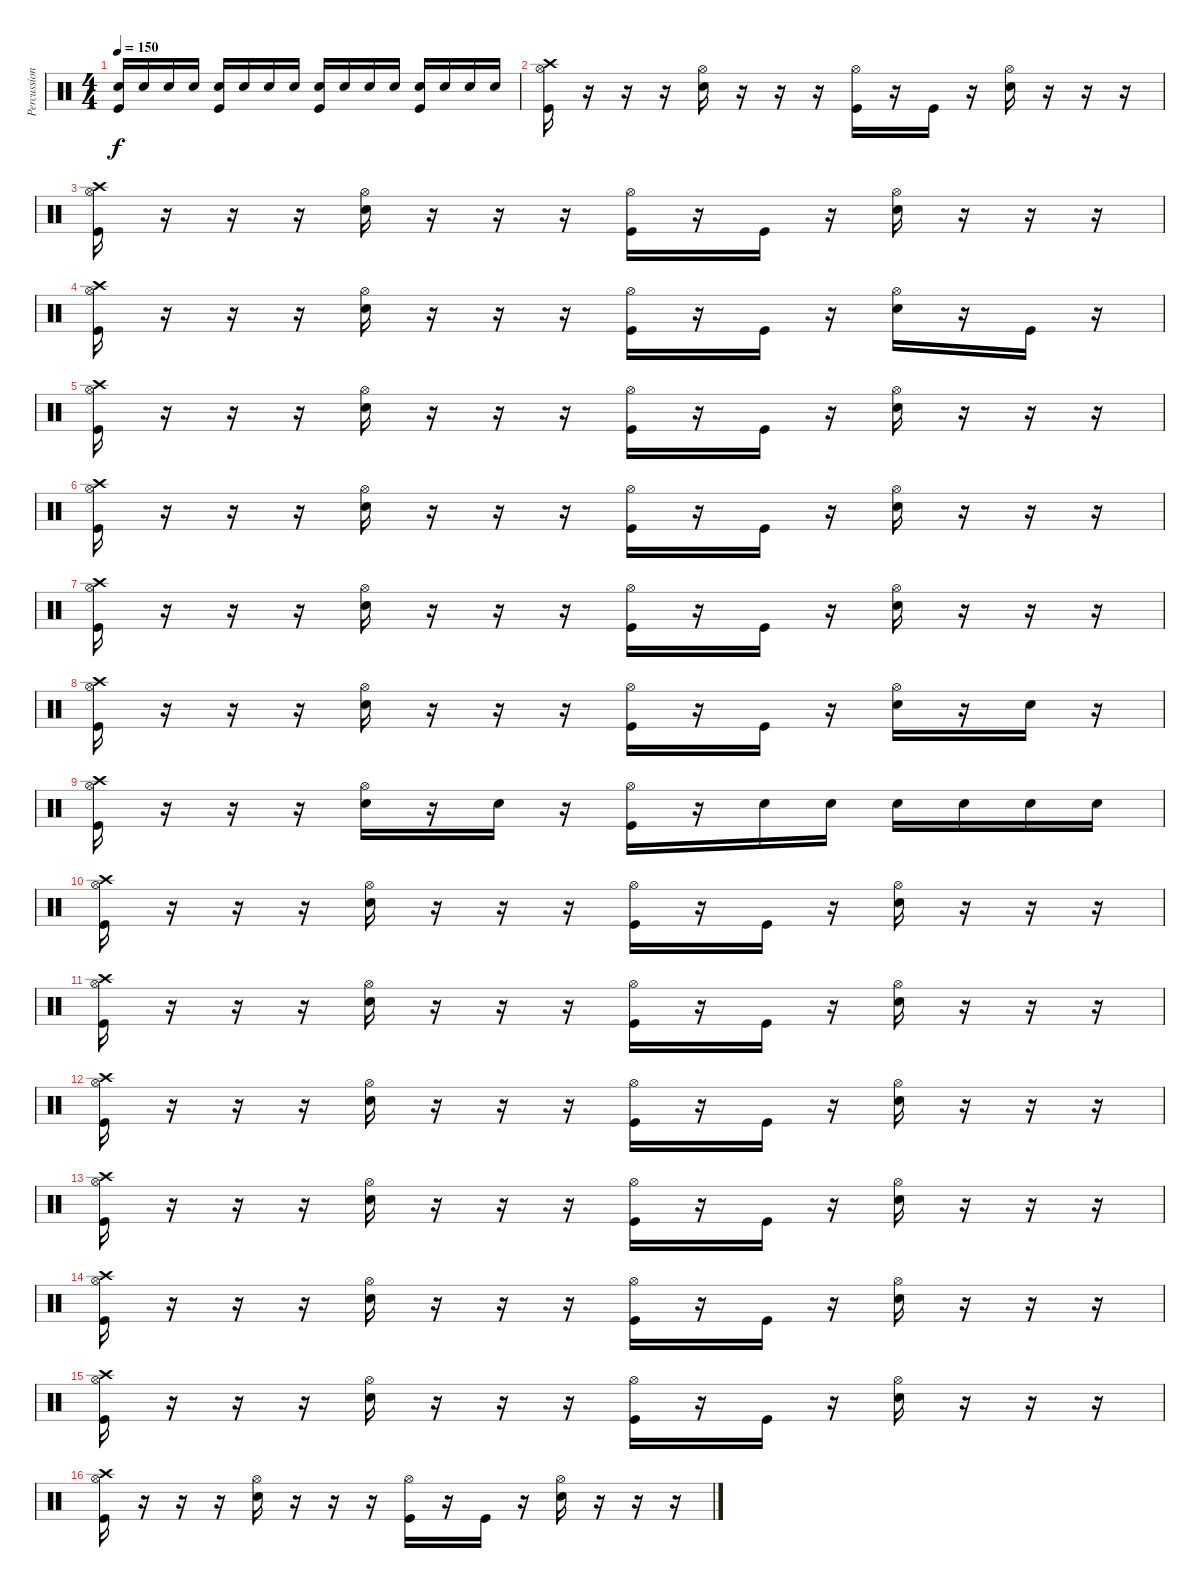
\track ("Percussion" "Percussion") {instrument percussion}
\staff {score}
\articulation defaults
\ts (4 4)
\tempo 150
\clef neutral
\ks c
("Electric Snare (hit)" "Kick (hit)").16{dy f} "Electric Snare (hit)".16 "Electric Snare (hit)".16 "Electric Snare (hit)".16 ("Electric Snare (hit)" "Kick (hit)").16 "Electric Snare (hit)".16 "Electric Snare (hit)".16 "Electric Snare (hit)".16 ("Electric Snare (hit)" "Kick (hit)").16 "Electric Snare (hit)".16 "Electric Snare (hit)".16 "Electric Snare (hit)".16 ("Electric Snare (hit)" "Kick (hit)").16 "Electric Snare (hit)".16 "Electric Snare (hit)".16 "Electric Snare (hit)".16 |
("Crash high (hit)" "Hi-Hat (open)" "Kick (hit)").16 r.16 r.16 r.16 ("Hi-Hat (open)" "Electric Snare (hit)").16 r.16 r.16 r.16 ("Hi-Hat (open)" "Kick (hit)").16 r.16 "Kick (hit)".16 r.16 ("Hi-Hat (open)" "Electric Snare (hit)").16 r.16 r.16 r.16 |
("Crash high (hit)" "Hi-Hat (open)" "Kick (hit)").16 r.16 r.16 r.16 ("Hi-Hat (open)" "Electric Snare (hit)").16 r.16 r.16 r.16 ("Hi-Hat (open)" "Kick (hit)").16 r.16 "Kick (hit)".16 r.16 ("Hi-Hat (open)" "Electric Snare (hit)").16 r.16 r.16 r.16 |
("Crash high (hit)" "Hi-Hat (open)" "Kick (hit)").16 r.16 r.16 r.16 ("Hi-Hat (open)" "Electric Snare (hit)").16 r.16 r.16 r.16 ("Hi-Hat (open)" "Kick (hit)").16 r.16 "Kick (hit)".16 r.16 ("Hi-Hat (open)" "Electric Snare (hit)").16 r.16 "Kick (hit)".16 r.16 |
("Crash high (hit)" "Hi-Hat (open)" "Kick (hit)").16 r.16 r.16 r.16 ("Hi-Hat (open)" "Electric Snare (hit)").16 r.16 r.16 r.16 ("Hi-Hat (open)" "Kick (hit)").16 r.16 "Kick (hit)".16 r.16 ("Hi-Hat (open)" "Electric Snare (hit)").16 r.16 r.16 r.16 |
("Crash high (hit)" "Hi-Hat (open)" "Kick (hit)").16 r.16 r.16 r.16 ("Hi-Hat (open)" "Electric Snare (hit)").16 r.16 r.16 r.16 ("Hi-Hat (open)" "Kick (hit)").16 r.16 "Kick (hit)".16 r.16 ("Hi-Hat (open)" "Electric Snare (hit)").16 r.16 r.16 r.16 |
("Crash high (hit)" "Hi-Hat (open)" "Kick (hit)").16 r.16 r.16 r.16 ("Hi-Hat (open)" "Electric Snare (hit)").16 r.16 r.16 r.16 ("Hi-Hat (open)" "Kick (hit)").16 r.16 "Kick (hit)".16 r.16 ("Hi-Hat (open)" "Electric Snare (hit)").16 r.16 r.16 r.16 |
("Crash high (hit)" "Hi-Hat (open)" "Kick (hit)").16 r.16 r.16 r.16 ("Hi-Hat (open)" "Electric Snare (hit)").16 r.16 r.16 r.16 ("Hi-Hat (open)" "Kick (hit)").16 r.16 "Kick (hit)".16 r.16 ("Hi-Hat (open)" "Electric Snare (hit)").16 r.16 "Electric Snare (hit)".16 r.16 |
("Crash high (hit)" "Hi-Hat (open)" "Kick (hit)").16 r.16 r.16 r.16 ("Hi-Hat (open)" "Electric Snare (hit)").16 r.16 "Electric Snare (hit)".16 r.16 ("Hi-Hat (open)" "Kick (hit)").16 r.16 "Electric Snare (hit)".16 "Electric Snare (hit)".16 "Electric Snare (hit)".16 "Electric Snare (hit)".16 "Electric Snare (hit)".16 "Electric Snare (hit)".16 |
("Crash high (hit)" "Hi-Hat (open)" "Kick (hit)").16 r.16 r.16 r.16 ("Hi-Hat (open)" "Electric Snare (hit)").16 r.16 r.16 r.16 ("Hi-Hat (open)" "Kick (hit)").16 r.16 "Kick (hit)".16 r.16 ("Hi-Hat (open)" "Electric Snare (hit)").16 r.16 r.16 r.16 |
("Crash high (hit)" "Hi-Hat (open)" "Kick (hit)").16 r.16 r.16 r.16 ("Hi-Hat (open)" "Electric Snare (hit)").16 r.16 r.16 r.16 ("Hi-Hat (open)" "Kick (hit)").16 r.16 "Kick (hit)".16 r.16 ("Hi-Hat (open)" "Electric Snare (hit)").16 r.16 r.16 r.16 |
("Crash high (hit)" "Hi-Hat (open)" "Kick (hit)").16 r.16 r.16 r.16 ("Hi-Hat (open)" "Electric Snare (hit)").16 r.16 r.16 r.16 ("Hi-Hat (open)" "Kick (hit)").16 r.16 "Kick (hit)".16 r.16 ("Hi-Hat (open)" "Electric Snare (hit)").16 r.16 r.16 r.16 |
("Crash high (hit)" "Hi-Hat (open)" "Kick (hit)").16 r.16 r.16 r.16 ("Hi-Hat (open)" "Electric Snare (hit)").16 r.16 r.16 r.16 ("Hi-Hat (open)" "Kick (hit)").16 r.16 "Kick (hit)".16 r.16 ("Hi-Hat (open)" "Electric Snare (hit)").16 r.16 r.16 r.16 |
("Crash high (hit)" "Hi-Hat (open)" "Kick (hit)").16 r.16 r.16 r.16 ("Hi-Hat (open)" "Electric Snare (hit)").16 r.16 r.16 r.16 ("Hi-Hat (open)" "Kick (hit)").16 r.16 "Kick (hit)".16 r.16 ("Hi-Hat (open)" "Electric Snare (hit)").16 r.16 r.16 r.16 |
("Crash high (hit)" "Hi-Hat (open)" "Kick (hit)").16 r.16 r.16 r.16 ("Hi-Hat (open)" "Electric Snare (hit)").16 r.16 r.16 r.16 ("Hi-Hat (open)" "Kick (hit)").16 r.16 "Kick (hit)".16 r.16 ("Hi-Hat (open)" "Electric Snare (hit)").16 r.16 r.16 r.16 |
("Crash high (hit)" "Hi-Hat (open)" "Kick (hit)").16 r.16 r.16 r.16 ("Hi-Hat (open)" "Electric Snare (hit)").16 r.16 r.16 r.16 ("Hi-Hat (open)" "Kick (hit)").16 r.16 "Kick (hit)".16 r.16 ("Hi-Hat (open)" "Electric Snare (hit)").16 r.16 r.16 r.16
